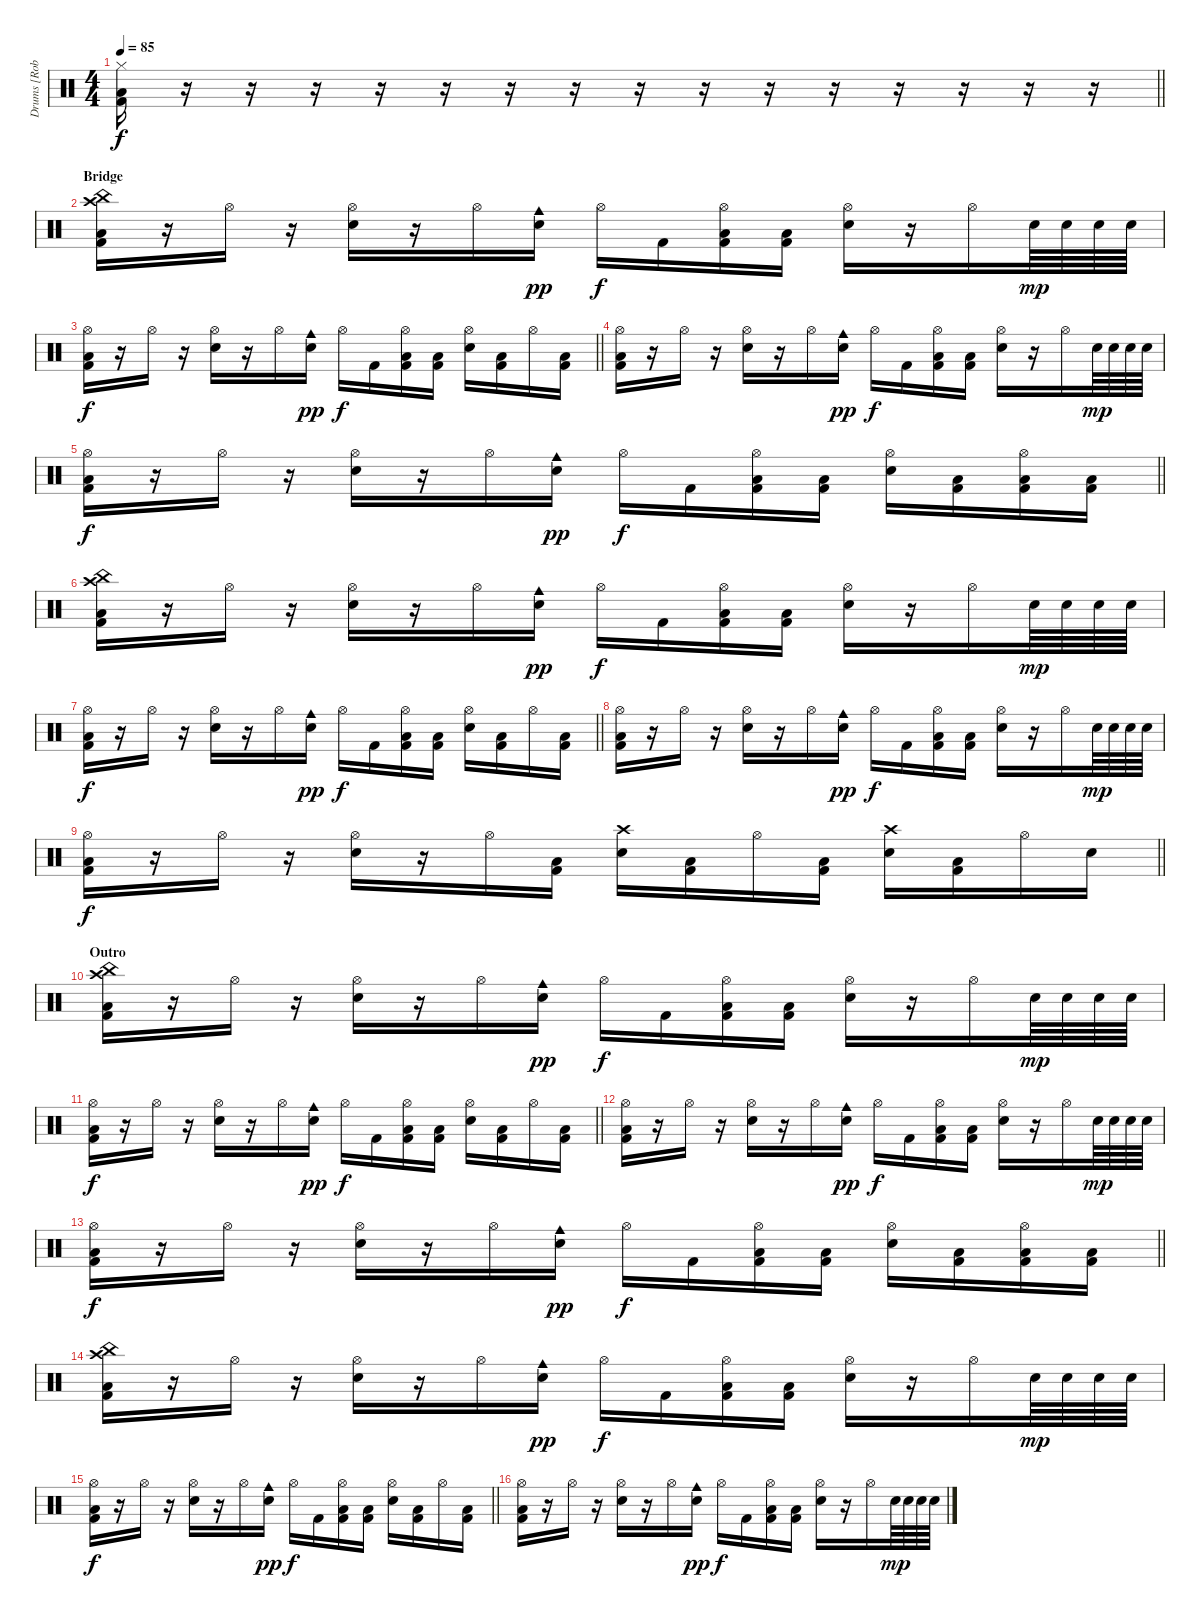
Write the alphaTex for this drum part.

\track ("Drums [Rob Bourdon]" "Drums [Rob") {instrument percussion}
\staff {score}
\articulation defaults
\ts (4 4)
\tempo 85
\clef neutral
\barLineRight lightlight
\ks c
("Hi-Hat (closed)" "Low Floor Tom (hit)" "Kick (hit) 2").16{dy f} r.16 r.16 r.16 r.16 r.16 r.16 r.16 r.16 r.16 r.16 r.16 r.16 r.16 r.16 r.16 |
\section ("" "Bridge")
("China (hit)" "Crash high (hit)" "Low Floor Tom (hit)" "Kick (hit) 2").16 r.16 "Hi-Hat (open)".16 r.16 ("Hi-Hat (open)" "Snare (hit) 2").16 r.16 "Hi-Hat (open)".16 ("Snare (hit) 2" "Cowbell medium (hit)").16{dy pp} "Hi-Hat (open)".16{dy f} "Kick (hit) 2".16 ("Hi-Hat (open)" "Low Floor Tom (hit)" "Kick (hit) 2").16 ("Low Floor Tom (hit)" "Kick (hit) 2").16 ("Hi-Hat (open)" "Snare (hit) 2").16 r.16 "Hi-Hat (open)".16 "Snare (hit) 2".64{dy mp} "Snare (hit) 2".64 "Snare (hit) 2".64 "Snare (hit) 2".64 |
\barLineRight lightlight
("Hi-Hat (open)" "Low Floor Tom (hit)" "Kick (hit) 2").16{dy f} r.16 "Hi-Hat (open)".16 r.16 ("Hi-Hat (open)" "Snare (hit) 2").16 r.16 "Hi-Hat (open)".16 ("Snare (hit) 2" "Cowbell medium (hit)").16{dy pp} "Hi-Hat (open)".16{dy f} "Kick (hit) 2".16 ("Hi-Hat (open)" "Low Floor Tom (hit)" "Kick (hit) 2").16 ("Low Floor Tom (hit)" "Kick (hit) 2").16 ("Hi-Hat (open)" "Snare (hit) 2").16 ("Low Floor Tom (hit)" "Kick (hit) 2").16 "Hi-Hat (open)".16 ("Low Floor Tom (hit)" "Kick (hit) 2").16 |
("Hi-Hat (open)" "Low Floor Tom (hit)" "Kick (hit) 2").16 r.16 "Hi-Hat (open)".16 r.16 ("Hi-Hat (open)" "Snare (hit) 2").16 r.16 "Hi-Hat (open)".16 ("Snare (hit) 2" "Cowbell medium (hit)").16{dy pp} "Hi-Hat (open)".16{dy f} "Kick (hit) 2".16 ("Hi-Hat (open)" "Low Floor Tom (hit)" "Kick (hit) 2").16 ("Low Floor Tom (hit)" "Kick (hit) 2").16 ("Hi-Hat (open)" "Snare (hit) 2").16 r.16 "Hi-Hat (open)".16 "Snare (hit) 2".64{dy mp} "Snare (hit) 2".64 "Snare (hit) 2".64 "Snare (hit) 2".64 |
\barLineRight lightlight
("Hi-Hat (open)" "Low Floor Tom (hit)" "Kick (hit) 2").16{dy f} r.16 "Hi-Hat (open)".16 r.16 ("Hi-Hat (open)" "Snare (hit) 2").16 r.16 "Hi-Hat (open)".16 ("Snare (hit) 2" "Cowbell medium (hit)").16{dy pp} "Hi-Hat (open)".16{dy f} "Kick (hit) 2".16 ("Hi-Hat (open)" "Low Floor Tom (hit)" "Kick (hit) 2").16 ("Low Floor Tom (hit)" "Kick (hit) 2").16 ("Hi-Hat (open)" "Snare (hit) 2").16 ("Low Floor Tom (hit)" "Kick (hit) 2").16 ("Hi-Hat (open)" "Low Floor Tom (hit)" "Kick (hit) 2").16 ("Low Floor Tom (hit)" "Kick (hit) 2").16 |
("China (hit)" "Crash high (hit)" "Low Floor Tom (hit)" "Kick (hit) 2").16 r.16 "Hi-Hat (open)".16 r.16 ("Hi-Hat (open)" "Snare (hit) 2").16 r.16 "Hi-Hat (open)".16 ("Snare (hit) 2" "Cowbell medium (hit)").16{dy pp} "Hi-Hat (open)".16{dy f} "Kick (hit) 2".16 ("Hi-Hat (open)" "Low Floor Tom (hit)" "Kick (hit) 2").16 ("Low Floor Tom (hit)" "Kick (hit) 2").16 ("Hi-Hat (open)" "Snare (hit) 2").16 r.16 "Hi-Hat (open)".16 "Snare (hit) 2".64{dy mp} "Snare (hit) 2".64 "Snare (hit) 2".64 "Snare (hit) 2".64 |
\barLineRight lightlight
("Hi-Hat (open)" "Low Floor Tom (hit)" "Kick (hit) 2").16{dy f} r.16 "Hi-Hat (open)".16 r.16 ("Hi-Hat (open)" "Snare (hit) 2").16 r.16 "Hi-Hat (open)".16 ("Snare (hit) 2" "Cowbell medium (hit)").16{dy pp} "Hi-Hat (open)".16{dy f} "Kick (hit) 2".16 ("Hi-Hat (open)" "Low Floor Tom (hit)" "Kick (hit) 2").16 ("Low Floor Tom (hit)" "Kick (hit) 2").16 ("Hi-Hat (open)" "Snare (hit) 2").16 ("Low Floor Tom (hit)" "Kick (hit) 2").16 "Hi-Hat (open)".16 ("Low Floor Tom (hit)" "Kick (hit) 2").16 |
("Hi-Hat (open)" "Low Floor Tom (hit)" "Kick (hit) 2").16 r.16 "Hi-Hat (open)".16 r.16 ("Hi-Hat (open)" "Snare (hit) 2").16 r.16 "Hi-Hat (open)".16 ("Snare (hit) 2" "Cowbell medium (hit)").16{dy pp} "Hi-Hat (open)".16{dy f} "Kick (hit) 2".16 ("Hi-Hat (open)" "Low Floor Tom (hit)" "Kick (hit) 2").16 ("Low Floor Tom (hit)" "Kick (hit) 2").16 ("Hi-Hat (open)" "Snare (hit) 2").16 r.16 "Hi-Hat (open)".16 "Snare (hit) 2".64{dy mp} "Snare (hit) 2".64 "Snare (hit) 2".64 "Snare (hit) 2".64 |
\barLineRight lightlight
("Hi-Hat (open)" "Low Floor Tom (hit)" "Kick (hit) 2").16{dy f} r.16 "Hi-Hat (open)".16 r.16 ("Hi-Hat (open)" "Snare (hit) 2").16 r.16 "Hi-Hat (open)".16 ("Low Floor Tom (hit)" "Kick (hit) 2").16 ("Crash high (hit)" "Snare (hit) 2").16 ("Low Floor Tom (hit)" "Kick (hit) 2").16 "Hi-Hat (open)".16 ("Low Floor Tom (hit)" "Kick (hit) 2").16 ("Crash high (hit)" "Snare (hit) 2").16 ("Low Floor Tom (hit)" "Kick (hit) 2").16 "Hi-Hat (open)".16 "Snare (hit) 2".16 |
\section ("" "Outro")
("China (hit)" "Crash high (hit)" "Low Floor Tom (hit)" "Kick (hit) 2").16 r.16 "Hi-Hat (open)".16 r.16 ("Hi-Hat (open)" "Snare (hit) 2").16 r.16 "Hi-Hat (open)".16 ("Snare (hit) 2" "Cowbell medium (hit)").16{dy pp} "Hi-Hat (open)".16{dy f} "Kick (hit) 2".16 ("Hi-Hat (open)" "Low Floor Tom (hit)" "Kick (hit) 2").16 ("Low Floor Tom (hit)" "Kick (hit) 2").16 ("Hi-Hat (open)" "Snare (hit) 2").16 r.16 "Hi-Hat (open)".16 "Snare (hit) 2".64{dy mp} "Snare (hit) 2".64 "Snare (hit) 2".64 "Snare (hit) 2".64 |
\barLineRight lightlight
("Hi-Hat (open)" "Low Floor Tom (hit)" "Kick (hit) 2").16{dy f} r.16 "Hi-Hat (open)".16 r.16 ("Hi-Hat (open)" "Snare (hit) 2").16 r.16 "Hi-Hat (open)".16 ("Snare (hit) 2" "Cowbell medium (hit)").16{dy pp} "Hi-Hat (open)".16{dy f} "Kick (hit) 2".16 ("Hi-Hat (open)" "Low Floor Tom (hit)" "Kick (hit) 2").16 ("Low Floor Tom (hit)" "Kick (hit) 2").16 ("Hi-Hat (open)" "Snare (hit) 2").16 ("Low Floor Tom (hit)" "Kick (hit) 2").16 "Hi-Hat (open)".16 ("Low Floor Tom (hit)" "Kick (hit) 2").16 |
("Hi-Hat (open)" "Low Floor Tom (hit)" "Kick (hit) 2").16 r.16 "Hi-Hat (open)".16 r.16 ("Hi-Hat (open)" "Snare (hit) 2").16 r.16 "Hi-Hat (open)".16 ("Snare (hit) 2" "Cowbell medium (hit)").16{dy pp} "Hi-Hat (open)".16{dy f} "Kick (hit) 2".16 ("Hi-Hat (open)" "Low Floor Tom (hit)" "Kick (hit) 2").16 ("Low Floor Tom (hit)" "Kick (hit) 2").16 ("Hi-Hat (open)" "Snare (hit) 2").16 r.16 "Hi-Hat (open)".16 "Snare (hit) 2".64{dy mp} "Snare (hit) 2".64 "Snare (hit) 2".64 "Snare (hit) 2".64 |
\barLineRight lightlight
("Hi-Hat (open)" "Low Floor Tom (hit)" "Kick (hit) 2").16{dy f} r.16 "Hi-Hat (open)".16 r.16 ("Hi-Hat (open)" "Snare (hit) 2").16 r.16 "Hi-Hat (open)".16 ("Snare (hit) 2" "Cowbell medium (hit)").16{dy pp} "Hi-Hat (open)".16{dy f} "Kick (hit) 2".16 ("Hi-Hat (open)" "Low Floor Tom (hit)" "Kick (hit) 2").16 ("Low Floor Tom (hit)" "Kick (hit) 2").16 ("Hi-Hat (open)" "Snare (hit) 2").16 ("Low Floor Tom (hit)" "Kick (hit) 2").16 ("Hi-Hat (open)" "Low Floor Tom (hit)" "Kick (hit) 2").16 ("Low Floor Tom (hit)" "Kick (hit) 2").16 |
("China (hit)" "Crash high (hit)" "Low Floor Tom (hit)" "Kick (hit) 2").16 r.16 "Hi-Hat (open)".16 r.16 ("Hi-Hat (open)" "Snare (hit) 2").16 r.16 "Hi-Hat (open)".16 ("Snare (hit) 2" "Cowbell medium (hit)").16{dy pp} "Hi-Hat (open)".16{dy f} "Kick (hit) 2".16 ("Hi-Hat (open)" "Low Floor Tom (hit)" "Kick (hit) 2").16 ("Low Floor Tom (hit)" "Kick (hit) 2").16 ("Hi-Hat (open)" "Snare (hit) 2").16 r.16 "Hi-Hat (open)".16 "Snare (hit) 2".64{dy mp} "Snare (hit) 2".64 "Snare (hit) 2".64 "Snare (hit) 2".64 |
\barLineRight lightlight
("Hi-Hat (open)" "Low Floor Tom (hit)" "Kick (hit) 2").16{dy f} r.16 "Hi-Hat (open)".16 r.16 ("Hi-Hat (open)" "Snare (hit) 2").16 r.16 "Hi-Hat (open)".16 ("Snare (hit) 2" "Cowbell medium (hit)").16{dy pp} "Hi-Hat (open)".16{dy f} "Kick (hit) 2".16 ("Hi-Hat (open)" "Low Floor Tom (hit)" "Kick (hit) 2").16 ("Low Floor Tom (hit)" "Kick (hit) 2").16 ("Hi-Hat (open)" "Snare (hit) 2").16 ("Low Floor Tom (hit)" "Kick (hit) 2").16 "Hi-Hat (open)".16 ("Low Floor Tom (hit)" "Kick (hit) 2").16 |
("Hi-Hat (open)" "Low Floor Tom (hit)" "Kick (hit) 2").16 r.16 "Hi-Hat (open)".16 r.16 ("Hi-Hat (open)" "Snare (hit) 2").16 r.16 "Hi-Hat (open)".16 ("Snare (hit) 2" "Cowbell medium (hit)").16{dy pp} "Hi-Hat (open)".16{dy f} "Kick (hit) 2".16 ("Hi-Hat (open)" "Low Floor Tom (hit)" "Kick (hit) 2").16 ("Low Floor Tom (hit)" "Kick (hit) 2").16 ("Hi-Hat (open)" "Snare (hit) 2").16 r.16 "Hi-Hat (open)".16 "Snare (hit) 2".64{dy mp} "Snare (hit) 2".64 "Snare (hit) 2".64 "Snare (hit) 2".64
